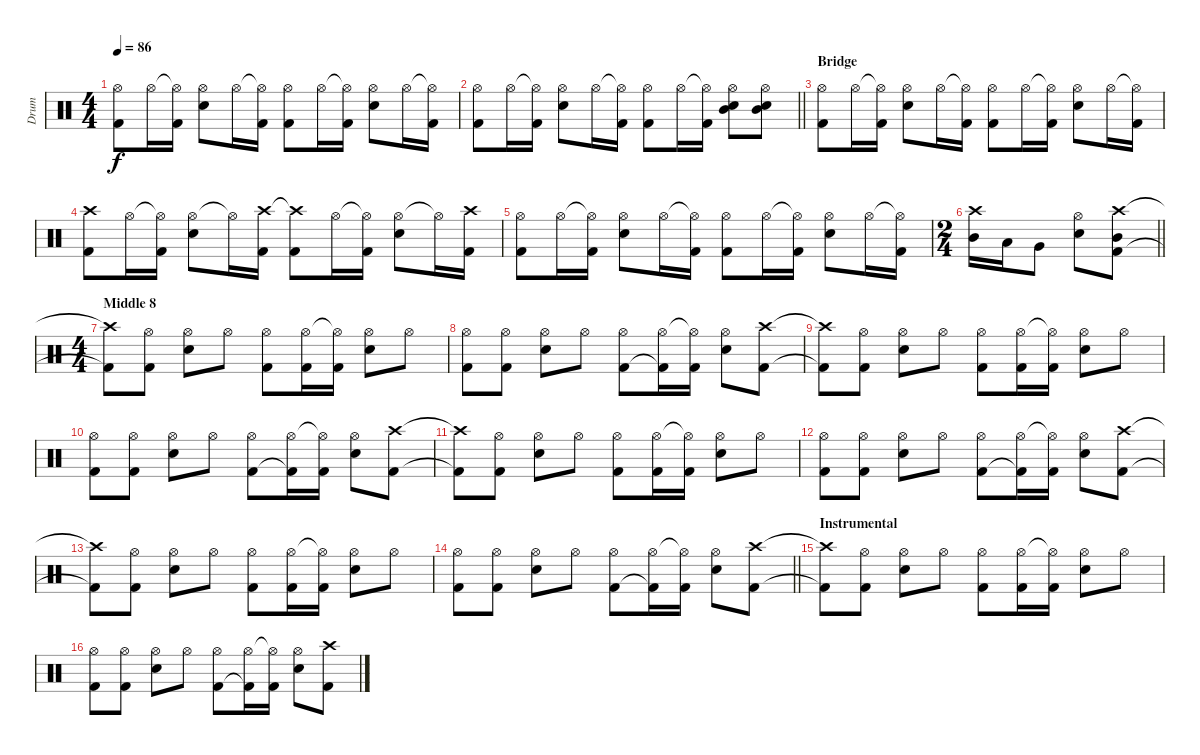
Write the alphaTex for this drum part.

\track ("Drum" "Drum") {instrument percussion}
\staff {score}
\articulation defaults
\ts (4 4)
\tempo 86
\clef neutral
\ks c
("Hi-Hat (open)" "Kick (hit) 2").8{dy f} "Hi-Hat (open)".16 ("Hi-Hat (open)"{t} "Kick (hit) 2").16 ("Hi-Hat (open)" "Snare (hit) 2").8 "Hi-Hat (open)".16 ("Hi-Hat (open)"{t} "Kick (hit) 2").16 ("Hi-Hat (open)" "Kick (hit) 2").8 "Hi-Hat (open)".16 ("Hi-Hat (open)"{t} "Kick (hit) 2").16 ("Hi-Hat (open)" "Snare (hit) 2").8 "Hi-Hat (open)".16 ("Hi-Hat (open)"{t} "Kick (hit) 2").16 |
\barLineRight lightlight
("Hi-Hat (open)" "Kick (hit) 2").8 "Hi-Hat (open)".16 ("Hi-Hat (open)"{t} "Kick (hit) 2").16 ("Hi-Hat (open)" "Snare (hit) 2").8 "Hi-Hat (open)".16 ("Hi-Hat (open)"{t} "Kick (hit) 2").16 ("Hi-Hat (open)" "Kick (hit) 2").8 "Hi-Hat (open)".16 ("Hi-Hat (open)"{t} "Kick (hit) 2").16 ("Hi-Hat (open)" "Snare (hit) 2" "Mid Tom (hit)").8 ("Hi-Hat (open)" "Snare (hit) 2" "Mid Tom (hit)").8 |
\section ("" "Bridge")
("Hi-Hat (open)" "Kick (hit) 2").8 "Hi-Hat (open)".16 ("Hi-Hat (open)"{t} "Kick (hit) 2").16 ("Hi-Hat (open)" "Snare (hit) 2").8 "Hi-Hat (open)".16 ("Hi-Hat (open)"{t} "Kick (hit) 2").16 ("Hi-Hat (open)" "Kick (hit) 2").8 "Hi-Hat (open)".16 ("Hi-Hat (open)"{t} "Kick (hit) 2").16 ("Hi-Hat (open)" "Snare (hit) 2").8 "Hi-Hat (open)".16 ("Hi-Hat (open)"{t} "Kick (hit) 2").16 |
("Crash high (hit)" "Kick (hit) 2").8 "Hi-Hat (open)".16 ("Hi-Hat (open)"{t} "Kick (hit) 2").16 ("Hi-Hat (open)" "Snare (hit) 2").8 "Hi-Hat (open)"{t}.16 ("Crash high (hit)" "Kick (hit) 2").16 ("Crash high (hit)"{t} "Kick (hit) 2").8 "Hi-Hat (open)".16 ("Hi-Hat (open)"{t} "Kick (hit) 2").16 ("Hi-Hat (open)" "Snare (hit) 2").8 "Hi-Hat (open)"{t}.16 ("Crash high (hit)" "Kick (hit) 2").16 |
("Hi-Hat (open)" "Kick (hit) 2").8 "Hi-Hat (open)".16 ("Hi-Hat (open)"{t} "Kick (hit) 2").16 ("Hi-Hat (open)" "Snare (hit) 2").8 "Hi-Hat (open)".16 ("Hi-Hat (open)"{t} "Kick (hit) 2").16 ("Hi-Hat (open)" "Kick (hit) 2").8 "Hi-Hat (open)".16 ("Hi-Hat (open)"{t} "Kick (hit) 2").16 ("Hi-Hat (open)" "Snare (hit) 2").8 "Hi-Hat (open)".16 ("Hi-Hat (open)"{t} "Kick (hit) 2").16 |
\ts (2 4)
\barLineRight lightlight
("Crash high (hit)" "Mid Tom (hit)").16 "Low Tom (hit)".16 "Very Low Tom (hit)".8 ("Hi-Hat (open)" "Snare (hit) 2").8 ("Crash high (hit)" "Kick (hit) 2" "Mid Tom (hit)").8 |
\ts (4 4)
\section ("" "Middle 8")
("Crash high (hit)"{t} "Kick (hit) 2"{t}).8 ("Hi-Hat (open)" "Kick (hit) 2").8 ("Hi-Hat (open)" "Snare (hit) 2").8 "Hi-Hat (open)".8 ("Hi-Hat (open)" "Kick (hit) 2").8 ("Hi-Hat (open)" "Kick (hit) 2").16 ("Hi-Hat (open)"{t} "Kick (hit) 2").16 ("Hi-Hat (open)" "Snare (hit) 2").8 "Hi-Hat (open)".8 |
("Hi-Hat (open)" "Kick (hit) 2").8 ("Hi-Hat (open)" "Kick (hit) 2").8 ("Hi-Hat (open)" "Snare (hit) 2").8 "Hi-Hat (open)".8 ("Hi-Hat (open)" "Kick (hit) 2").8 ("Hi-Hat (open)" "Kick (hit) 2"{t}).16 ("Hi-Hat (open)"{t} "Kick (hit) 2").16 ("Hi-Hat (open)" "Snare (hit) 2").8 ("Crash high (hit)" "Kick (hit) 2").8 |
("Crash high (hit)"{t} "Kick (hit) 2"{t}).8 ("Hi-Hat (open)" "Kick (hit) 2").8 ("Hi-Hat (open)" "Snare (hit) 2").8 "Hi-Hat (open)".8 ("Hi-Hat (open)" "Kick (hit) 2").8 ("Hi-Hat (open)" "Kick (hit) 2").16 ("Hi-Hat (open)"{t} "Kick (hit) 2").16 ("Hi-Hat (open)" "Snare (hit) 2").8 "Hi-Hat (open)".8 |
("Hi-Hat (open)" "Kick (hit) 2").8 ("Hi-Hat (open)" "Kick (hit) 2").8 ("Hi-Hat (open)" "Snare (hit) 2").8 "Hi-Hat (open)".8 ("Hi-Hat (open)" "Kick (hit) 2").8 ("Hi-Hat (open)" "Kick (hit) 2"{t}).16 ("Hi-Hat (open)"{t} "Kick (hit) 2").16 ("Hi-Hat (open)" "Snare (hit) 2").8 ("Crash high (hit)" "Kick (hit) 2").8 |
("Crash high (hit)"{t} "Kick (hit) 2"{t}).8 ("Hi-Hat (open)" "Kick (hit) 2").8 ("Hi-Hat (open)" "Snare (hit) 2").8 "Hi-Hat (open)".8 ("Hi-Hat (open)" "Kick (hit) 2").8 ("Hi-Hat (open)" "Kick (hit) 2").16 ("Hi-Hat (open)"{t} "Kick (hit) 2").16 ("Hi-Hat (open)" "Snare (hit) 2").8 "Hi-Hat (open)".8 |
("Hi-Hat (open)" "Kick (hit) 2").8 ("Hi-Hat (open)" "Kick (hit) 2").8 ("Hi-Hat (open)" "Snare (hit) 2").8 "Hi-Hat (open)".8 ("Hi-Hat (open)" "Kick (hit) 2").8 ("Hi-Hat (open)" "Kick (hit) 2"{t}).16 ("Hi-Hat (open)"{t} "Kick (hit) 2").16 ("Hi-Hat (open)" "Snare (hit) 2").8 ("Crash high (hit)" "Kick (hit) 2").8 |
("Crash high (hit)"{t} "Kick (hit) 2"{t}).8 ("Hi-Hat (open)" "Kick (hit) 2").8 ("Hi-Hat (open)" "Snare (hit) 2").8 "Hi-Hat (open)".8 ("Hi-Hat (open)" "Kick (hit) 2").8 ("Hi-Hat (open)" "Kick (hit) 2").16 ("Hi-Hat (open)"{t} "Kick (hit) 2").16 ("Hi-Hat (open)" "Snare (hit) 2").8 "Hi-Hat (open)".8 |
\barLineRight lightlight
("Hi-Hat (open)" "Kick (hit) 2").8 ("Hi-Hat (open)" "Kick (hit) 2").8 ("Hi-Hat (open)" "Snare (hit) 2").8 "Hi-Hat (open)".8 ("Hi-Hat (open)" "Kick (hit) 2").8 ("Hi-Hat (open)" "Kick (hit) 2"{t}).16 ("Hi-Hat (open)"{t} "Kick (hit) 2").16 ("Hi-Hat (open)" "Snare (hit) 2").8 ("Crash high (hit)" "Kick (hit) 2").8 |
\section ("" "Instrumental")
("Crash high (hit)"{t} "Kick (hit) 2"{t}).8 ("Hi-Hat (open)" "Kick (hit) 2").8 ("Hi-Hat (open)" "Snare (hit) 2").8 "Hi-Hat (open)".8 ("Hi-Hat (open)" "Kick (hit) 2").8 ("Hi-Hat (open)" "Kick (hit) 2").16 ("Hi-Hat (open)"{t} "Kick (hit) 2").16 ("Hi-Hat (open)" "Snare (hit) 2").8 "Hi-Hat (open)".8 |
("Hi-Hat (open)" "Kick (hit) 2").8 ("Hi-Hat (open)" "Kick (hit) 2").8 ("Hi-Hat (open)" "Snare (hit) 2").8 "Hi-Hat (open)".8 ("Hi-Hat (open)" "Kick (hit) 2").8 ("Hi-Hat (open)" "Kick (hit) 2"{t}).16 ("Hi-Hat (open)"{t} "Kick (hit) 2").16 ("Hi-Hat (open)" "Snare (hit) 2").8 ("Crash high (hit)" "Kick (hit) 2").8
